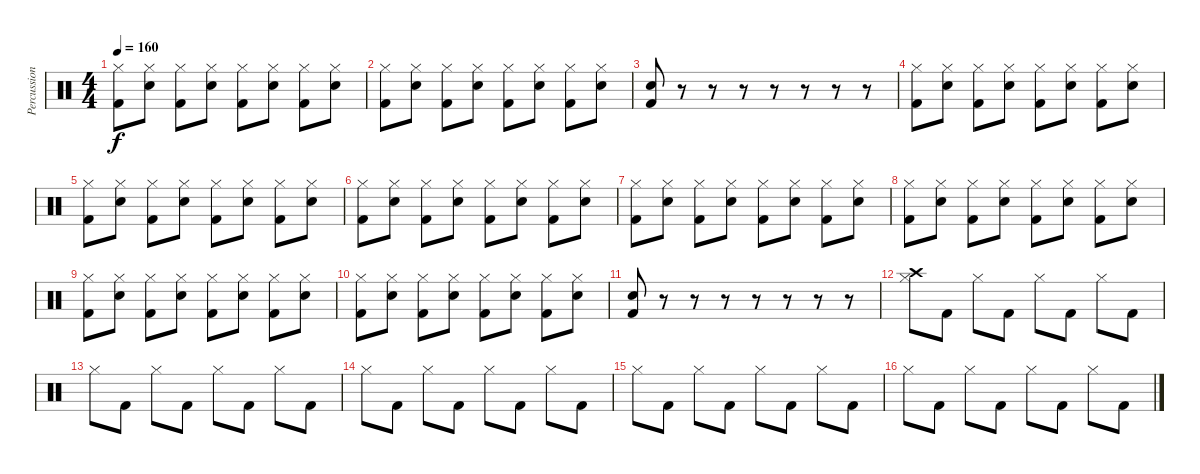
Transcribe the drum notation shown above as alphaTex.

\track ("Percussions" "Percussion") {instrument percussion}
\staff {score}
\articulation defaults
\ts (4 4)
\tempo 160
\clef neutral
\ks c
("Hi-Hat (closed)" "Kick (hit) 2").8{dy f} ("Hi-Hat (closed)" "Electric Snare (hit)").8 ("Hi-Hat (closed)" "Kick (hit) 2").8 ("Hi-Hat (closed)" "Electric Snare (hit)").8 ("Hi-Hat (closed)" "Kick (hit) 2").8 ("Hi-Hat (closed)" "Electric Snare (hit)").8 ("Hi-Hat (closed)" "Kick (hit) 2").8 ("Hi-Hat (closed)" "Electric Snare (hit)").8 |
("Hi-Hat (closed)" "Kick (hit) 2").8 ("Hi-Hat (closed)" "Electric Snare (hit)").8 ("Hi-Hat (closed)" "Kick (hit) 2").8 ("Hi-Hat (closed)" "Electric Snare (hit)").8 ("Hi-Hat (closed)" "Kick (hit) 2").8 ("Hi-Hat (closed)" "Electric Snare (hit)").8 ("Hi-Hat (closed)" "Kick (hit) 2").8 ("Hi-Hat (closed)" "Electric Snare (hit)").8 |
("Kick (hit) 2" "Electric Snare (hit)").8 r.8 r.8 r.8 r.8 r.8 r.8 r.8 |
("Hi-Hat (closed)" "Kick (hit) 2").8 ("Hi-Hat (closed)" "Electric Snare (hit)").8 ("Hi-Hat (closed)" "Kick (hit) 2").8 ("Hi-Hat (closed)" "Electric Snare (hit)").8 ("Hi-Hat (closed)" "Kick (hit) 2").8 ("Hi-Hat (closed)" "Electric Snare (hit)").8 ("Hi-Hat (closed)" "Kick (hit) 2").8 ("Hi-Hat (closed)" "Electric Snare (hit)").8 |
("Hi-Hat (closed)" "Kick (hit) 2").8 ("Hi-Hat (closed)" "Electric Snare (hit)").8 ("Hi-Hat (closed)" "Kick (hit) 2").8 ("Hi-Hat (closed)" "Electric Snare (hit)").8 ("Hi-Hat (closed)" "Kick (hit) 2").8 ("Hi-Hat (closed)" "Electric Snare (hit)").8 ("Hi-Hat (closed)" "Kick (hit) 2").8 ("Hi-Hat (closed)" "Electric Snare (hit)").8 |
("Hi-Hat (closed)" "Kick (hit) 2").8 ("Hi-Hat (closed)" "Electric Snare (hit)").8 ("Hi-Hat (closed)" "Kick (hit) 2").8 ("Hi-Hat (closed)" "Electric Snare (hit)").8 ("Hi-Hat (closed)" "Kick (hit) 2").8 ("Hi-Hat (closed)" "Electric Snare (hit)").8 ("Hi-Hat (closed)" "Kick (hit) 2").8 ("Hi-Hat (closed)" "Electric Snare (hit)").8 |
("Hi-Hat (closed)" "Kick (hit) 2").8 ("Hi-Hat (closed)" "Electric Snare (hit)").8 ("Hi-Hat (closed)" "Kick (hit) 2").8 ("Hi-Hat (closed)" "Electric Snare (hit)").8 ("Hi-Hat (closed)" "Kick (hit) 2").8 ("Hi-Hat (closed)" "Electric Snare (hit)").8 ("Hi-Hat (closed)" "Kick (hit) 2").8 ("Hi-Hat (closed)" "Electric Snare (hit)").8 |
("Hi-Hat (closed)" "Kick (hit) 2").8 ("Hi-Hat (closed)" "Electric Snare (hit)").8 ("Hi-Hat (closed)" "Kick (hit) 2").8 ("Hi-Hat (closed)" "Electric Snare (hit)").8 ("Hi-Hat (closed)" "Kick (hit) 2").8 ("Hi-Hat (closed)" "Electric Snare (hit)").8 ("Hi-Hat (closed)" "Kick (hit) 2").8 ("Hi-Hat (closed)" "Electric Snare (hit)").8 |
("Hi-Hat (closed)" "Kick (hit) 2").8 ("Hi-Hat (closed)" "Electric Snare (hit)").8 ("Hi-Hat (closed)" "Kick (hit) 2").8 ("Hi-Hat (closed)" "Electric Snare (hit)").8 ("Hi-Hat (closed)" "Kick (hit) 2").8 ("Hi-Hat (closed)" "Electric Snare (hit)").8 ("Hi-Hat (closed)" "Kick (hit) 2").8 ("Hi-Hat (closed)" "Electric Snare (hit)").8 |
("Hi-Hat (closed)" "Kick (hit) 2").8 ("Hi-Hat (closed)" "Electric Snare (hit)").8 ("Hi-Hat (closed)" "Kick (hit) 2").8 ("Hi-Hat (closed)" "Electric Snare (hit)").8 ("Hi-Hat (closed)" "Kick (hit) 2").8 ("Hi-Hat (closed)" "Electric Snare (hit)").8 ("Hi-Hat (closed)" "Kick (hit) 2").8 ("Hi-Hat (closed)" "Electric Snare (hit)").8 |
("Kick (hit) 2" "Electric Snare (hit)").8 r.8 r.8 r.8 r.8 r.8 r.8 r.8 |
("Crash high (hit)" "Hi-Hat (closed)").8 "Kick (hit) 2".8 "Hi-Hat (closed)".8 "Kick (hit) 2".8 "Hi-Hat (closed)".8 "Kick (hit) 2".8 "Hi-Hat (closed)".8 "Kick (hit) 2".8 |
"Hi-Hat (closed)".8 "Kick (hit) 2".8 "Hi-Hat (closed)".8 "Kick (hit) 2".8 "Hi-Hat (closed)".8 "Kick (hit) 2".8 "Hi-Hat (closed)".8 "Kick (hit) 2".8 |
"Hi-Hat (closed)".8 "Kick (hit) 2".8 "Hi-Hat (closed)".8 "Kick (hit) 2".8 "Hi-Hat (closed)".8 "Kick (hit) 2".8 "Hi-Hat (closed)".8 "Kick (hit) 2".8 |
"Hi-Hat (closed)".8 "Kick (hit) 2".8 "Hi-Hat (closed)".8 "Kick (hit) 2".8 "Hi-Hat (closed)".8 "Kick (hit) 2".8 "Hi-Hat (closed)".8 "Kick (hit) 2".8 |
"Hi-Hat (closed)".8 "Kick (hit) 2".8 "Hi-Hat (closed)".8 "Kick (hit) 2".8 "Hi-Hat (closed)".8 "Kick (hit) 2".8 "Hi-Hat (closed)".8 "Kick (hit) 2".8
